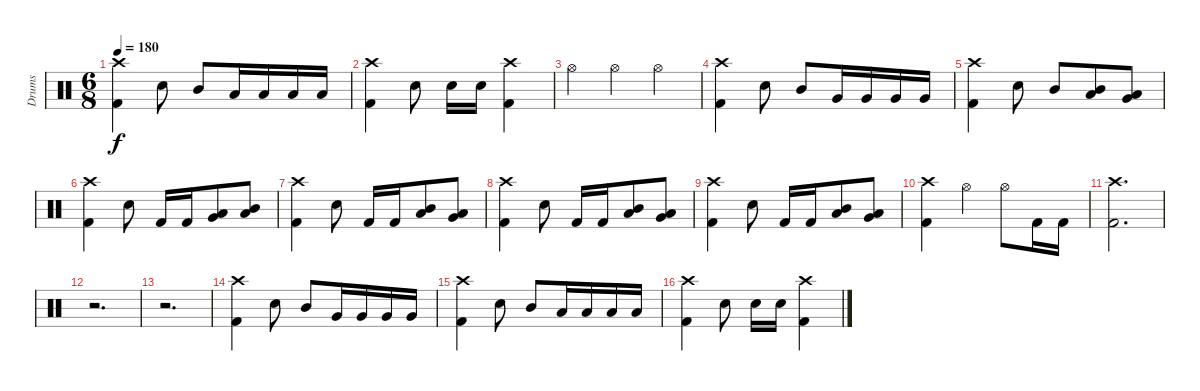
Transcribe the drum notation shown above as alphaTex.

\track ("Drums" "Drums") {instrument percussion}
\staff {score}
\articulation defaults
\ts (6 8)
\tempo 180
\clef neutral
\ks c
("Crash high (hit)" "Kick (hit) 2").4{dy f} "Snare (hit) 2".8 "Mid Tom (hit)".8 "Low Tom (hit)".16 "Low Tom (hit)".16 "Low Tom (hit)".16 "Low Tom (hit)".16 |
("Crash high (hit)" "Kick (hit) 2").4 "Snare (hit) 2".8 "Snare (hit) 2".16 "Snare (hit) 2".16 ("Crash high (hit)" "Kick (hit) 2").4 |
"Hi-Hat (open)".4 "Hi-Hat (open)".4 "Hi-Hat (open)".4 |
("Crash high (hit)" "Kick (hit) 2").4 "Snare (hit) 2".8 "Mid Tom (hit)".8 "Very Low Tom (hit)".16 "Very Low Tom (hit)".16 "Very Low Tom (hit)".16 "Very Low Tom (hit)".16 |
("Crash high (hit)" "Kick (hit) 2").4 "Snare (hit) 2".8 "Mid Tom (hit)".8 ("Mid Tom (hit)" "Low Tom (hit)").8 ("Low Tom (hit)" "Very Low Tom (hit)").8 |
("Crash high (hit)" "Kick (hit) 2").4 "Snare (hit) 2".8 "Kick (hit) 2".16 "Kick (hit) 2".16 ("Low Tom (hit)" "Very Low Tom (hit)").8 ("Mid Tom (hit)" "Low Tom (hit)").8 |
("Crash high (hit)" "Kick (hit) 2").4 "Snare (hit) 2".8 "Kick (hit) 2".16 "Kick (hit) 2".16 ("Mid Tom (hit)" "Low Tom (hit)").8 ("Low Tom (hit)" "Very Low Tom (hit)").8 |
("Crash high (hit)" "Kick (hit) 2").4 "Snare (hit) 2".8 "Kick (hit) 2".16 "Kick (hit) 2".16 ("Mid Tom (hit)" "Low Tom (hit)").8 ("Low Tom (hit)" "Very Low Tom (hit)").8 |
("Crash high (hit)" "Kick (hit) 2").4 "Snare (hit) 2".8 "Kick (hit) 2".16 "Kick (hit) 2".16 ("Mid Tom (hit)" "Low Tom (hit)").8 ("Low Tom (hit)" "Very Low Tom (hit)").8 |
("Crash high (hit)" "Kick (hit) 2").4 "Hi-Hat (open)".4 "Hi-Hat (open)".8 "Kick (hit) 2".16 "Kick (hit) 2".16 |
("Crash high (hit)" "Kick (hit) 2").2{d} |
r.2{d} |
r.2{d} |
("Crash high (hit)" "Kick (hit) 2").4 "Snare (hit) 2".8 "Mid Tom (hit)".8 "Very Low Tom (hit)".16 "Very Low Tom (hit)".16 "Very Low Tom (hit)".16 "Very Low Tom (hit)".16 |
("Crash high (hit)" "Kick (hit) 2").4 "Snare (hit) 2".8 "Mid Tom (hit)".8 "Low Tom (hit)".16 "Low Tom (hit)".16 "Low Tom (hit)".16 "Low Tom (hit)".16 |
("Crash high (hit)" "Kick (hit) 2").4 "Snare (hit) 2".8 "Snare (hit) 2".16 "Snare (hit) 2".16 ("Crash high (hit)" "Kick (hit) 2").4
